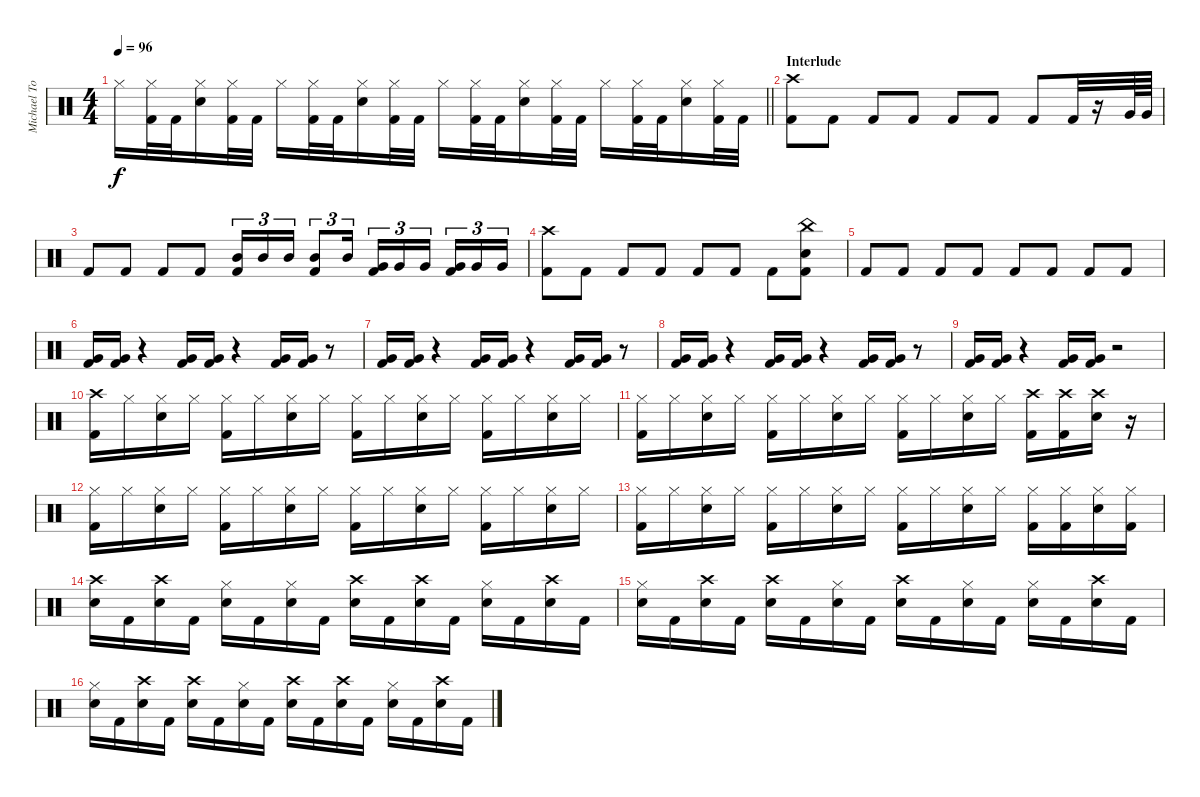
\track ("Michael Tomas (Drums)" "Michael To") {instrument percussion}
\staff {score}
\articulation defaults
\ts (4 4)
\tempo 96
\clef neutral
\barLineRight lightlight
\ks c "Hi-Hat (closed)".16{dy f}
("Hi-Hat (closed)" "Kick (hit) 2").32 "Kick (hit) 2".32 ("Hi-Hat (closed)" "Snare (hit) 2").16 ("Hi-Hat (closed)" "Kick (hit) 2").32 "Kick (hit) 2".32 "Hi-Hat (closed)".16 ("Hi-Hat (closed)" "Kick (hit) 2").32 "Kick (hit) 2".32 ("Hi-Hat (closed)" "Snare (hit) 2").16 ("Hi-Hat (closed)" "Kick (hit) 2").32 "Kick (hit) 2".32 "Hi-Hat (closed)".16 ("Hi-Hat (closed)" "Kick (hit) 2").32 "Kick (hit) 2".32 ("Hi-Hat (closed)" "Snare (hit) 2").16 ("Hi-Hat (closed)" "Kick (hit) 2").32 "Kick (hit) 2".32 "Hi-Hat (closed)".16 ("Hi-Hat (closed)" "Kick (hit) 2").32 "Kick (hit) 2".32 ("Hi-Hat (closed)" "Snare (hit) 2").16 ("Hi-Hat (closed)" "Kick (hit) 2").32 "Kick (hit) 2".32 |
\section ("" "Interlude")
("Crash high (hit)" "Kick (hit) 2").8 "Kick (hit) 2".8 "Kick (hit) 2".8 "Kick (hit) 2".8 "Kick (hit) 2".8 "Kick (hit) 2".8 "Kick (hit) 2".8 "Kick (hit) 2".32 r.16 "Very Low Tom (hit)".64 "Very Low Tom (hit)".64 |
"Kick (hit) 2".8 "Kick (hit) 2".8 "Kick (hit) 2".8 "Kick (hit) 2".8 ("Mid Tom (hit)" "Kick (hit) 2").16{tu (3 2)} "Mid Tom (hit)".16{tu (3 2)} "Mid Tom (hit)".16{tu (3 2)} ("Mid Tom (hit)" "Kick (hit) 2").8{tu (3 2)} "Mid Tom (hit)".16{tu (3 2)} ("Very Low Tom (hit)" "Kick (hit) 2").16{tu (3 2)} "Very Low Tom (hit)".16{tu (3 2)} "Very Low Tom (hit)".16{tu (3 2) beam splitsecondary} ("Very Low Tom (hit)" "Kick (hit) 2").16{tu (3 2)} "Very Low Tom (hit)".16{tu (3 2)} "Very Low Tom (hit)".16{tu (3 2)} |
("Crash high (hit)" "Kick (hit) 2").8 "Kick (hit) 2".8 "Kick (hit) 2".8 "Kick (hit) 2".8 "Kick (hit) 2".8 "Kick (hit) 2".8 "Kick (hit) 2".8 ("China (hit)" "Snare (hit) 2" "Kick (hit) 2").8 |
"Kick (hit) 2".8 "Kick (hit) 2".8 "Kick (hit) 2".8 "Kick (hit) 2".8 "Kick (hit) 2".8 "Kick (hit) 2".8 "Kick (hit) 2".8 "Kick (hit) 2".8 |
("Very Low Tom (hit)" "Kick (hit) 2").16 ("Very Low Tom (hit)" "Kick (hit) 2").16 r.4 ("Very Low Tom (hit)" "Kick (hit) 2").16 ("Very Low Tom (hit)" "Kick (hit) 2").16 r.4 ("Very Low Tom (hit)" "Kick (hit) 2").16 ("Very Low Tom (hit)" "Kick (hit) 2").16 r.8 |
("Very Low Tom (hit)" "Kick (hit) 2").16 ("Very Low Tom (hit)" "Kick (hit) 2").16 r.4 ("Very Low Tom (hit)" "Kick (hit) 2").16 ("Very Low Tom (hit)" "Kick (hit) 2").16 r.4 ("Very Low Tom (hit)" "Kick (hit) 2").16 ("Very Low Tom (hit)" "Kick (hit) 2").16 r.8 |
("Very Low Tom (hit)" "Kick (hit) 2").16 ("Very Low Tom (hit)" "Kick (hit) 2").16 r.4 ("Very Low Tom (hit)" "Kick (hit) 2").16 ("Very Low Tom (hit)" "Kick (hit) 2").16 r.4 ("Very Low Tom (hit)" "Kick (hit) 2").16 ("Very Low Tom (hit)" "Kick (hit) 2").16 r.8 |
("Very Low Tom (hit)" "Kick (hit) 2").16 ("Very Low Tom (hit)" "Kick (hit) 2").16 r.4 ("Very Low Tom (hit)" "Kick (hit) 2").16 ("Very Low Tom (hit)" "Kick (hit) 2").16 r.2 |
("Crash high (hit)" "Kick (hit) 2").16 "Hi-Hat (closed)".16 ("Hi-Hat (closed)" "Snare (hit) 2").16 "Hi-Hat (closed)".16 ("Hi-Hat (closed)" "Kick (hit) 2").16 "Hi-Hat (closed)".16 ("Hi-Hat (closed)" "Snare (hit) 2").16 "Hi-Hat (closed)".16 ("Hi-Hat (closed)" "Kick (hit) 2").16 "Hi-Hat (closed)".16 ("Hi-Hat (closed)" "Snare (hit) 2").16 "Hi-Hat (closed)".16 ("Hi-Hat (closed)" "Kick (hit) 2").16 "Hi-Hat (closed)".16 ("Hi-Hat (closed)" "Snare (hit) 2").16 "Hi-Hat (closed)".16 |
("Hi-Hat (closed)" "Kick (hit) 2").16 "Hi-Hat (closed)".16 ("Hi-Hat (closed)" "Snare (hit) 2").16 "Hi-Hat (closed)".16 ("Hi-Hat (closed)" "Kick (hit) 2").16 "Hi-Hat (closed)".16 ("Hi-Hat (closed)" "Snare (hit) 2").16 "Hi-Hat (closed)".16 ("Hi-Hat (closed)" "Kick (hit) 2").16 "Hi-Hat (closed)".16 ("Hi-Hat (closed)" "Snare (hit) 2").16 "Hi-Hat (closed)".16 ("Crash high (hit)" "Kick (hit) 2").16 ("Crash high (hit)" "Kick (hit) 2").16 ("Crash high (hit)" "Snare (hit) 2").16 r.16 |
("Hi-Hat (closed)" "Kick (hit) 2").16 "Hi-Hat (closed)".16 ("Hi-Hat (closed)" "Snare (hit) 2").16 "Hi-Hat (closed)".16 ("Hi-Hat (closed)" "Kick (hit) 2").16 "Hi-Hat (closed)".16 ("Hi-Hat (closed)" "Snare (hit) 2").16 "Hi-Hat (closed)".16 ("Hi-Hat (closed)" "Kick (hit) 2").16 "Hi-Hat (closed)".16 ("Hi-Hat (closed)" "Snare (hit) 2").16 "Hi-Hat (closed)".16 ("Hi-Hat (closed)" "Kick (hit) 2").16 "Hi-Hat (closed)".16 ("Hi-Hat (closed)" "Snare (hit) 2").16 "Hi-Hat (closed)".16 |
("Hi-Hat (closed)" "Kick (hit) 2").16 "Hi-Hat (closed)".16 ("Hi-Hat (closed)" "Snare (hit) 2").16 "Hi-Hat (closed)".16 ("Hi-Hat (closed)" "Kick (hit) 2").16 "Hi-Hat (closed)".16 ("Hi-Hat (closed)" "Snare (hit) 2").16 "Hi-Hat (closed)".16 ("Hi-Hat (closed)" "Kick (hit) 2").16 "Hi-Hat (closed)".16 ("Hi-Hat (closed)" "Snare (hit) 2").16 "Hi-Hat (closed)".16 ("Hi-Hat (closed)" "Kick (hit) 2").16 ("Hi-Hat (closed)" "Kick (hit) 2").16 ("Hi-Hat (closed)" "Snare (hit) 2").16 ("Hi-Hat (closed)" "Kick (hit) 2").16 |
("Crash high (hit)" "Snare (hit) 2").16 "Kick (hit) 2".16 ("Crash high (hit)" "Snare (hit) 2").16 "Kick (hit) 2".16 ("Hi-Hat (closed)" "Snare (hit) 2").16 "Kick (hit) 2".16 ("Hi-Hat (closed)" "Snare (hit) 2").16 "Kick (hit) 2".16 ("Crash high (hit)" "Snare (hit) 2").16 "Kick (hit) 2".16 ("Crash high (hit)" "Snare (hit) 2").16 "Kick (hit) 2".16 ("Hi-Hat (closed)" "Snare (hit) 2").16 "Kick (hit) 2".16 ("Crash high (hit)" "Snare (hit) 2").16 "Kick (hit) 2".16 |
("Hi-Hat (closed)" "Snare (hit) 2").16 "Kick (hit) 2".16 ("Crash high (hit)" "Snare (hit) 2").16 "Kick (hit) 2".16 ("Crash high (hit)" "Snare (hit) 2").16 "Kick (hit) 2".16 ("Hi-Hat (closed)" "Snare (hit) 2").16 "Kick (hit) 2".16 ("Crash high (hit)" "Snare (hit) 2").16 "Kick (hit) 2".16 ("Hi-Hat (closed)" "Snare (hit) 2").16 "Kick (hit) 2".16 ("Hi-Hat (closed)" "Snare (hit) 2").16 "Kick (hit) 2".16 ("Crash high (hit)" "Snare (hit) 2").16 "Kick (hit) 2".16 |
("Hi-Hat (closed)" "Snare (hit) 2").16 "Kick (hit) 2".16 ("Crash high (hit)" "Snare (hit) 2").16 "Kick (hit) 2".16 ("Crash high (hit)" "Snare (hit) 2").16 "Kick (hit) 2".16 ("Hi-Hat (closed)" "Snare (hit) 2").16 "Kick (hit) 2".16 ("Crash high (hit)" "Snare (hit) 2").16 "Kick (hit) 2".16 ("Crash high (hit)" "Snare (hit) 2").16 "Kick (hit) 2".16 ("Hi-Hat (closed)" "Snare (hit) 2").16 "Kick (hit) 2".16 ("Crash high (hit)" "Snare (hit) 2").16 "Kick (hit) 2".16
